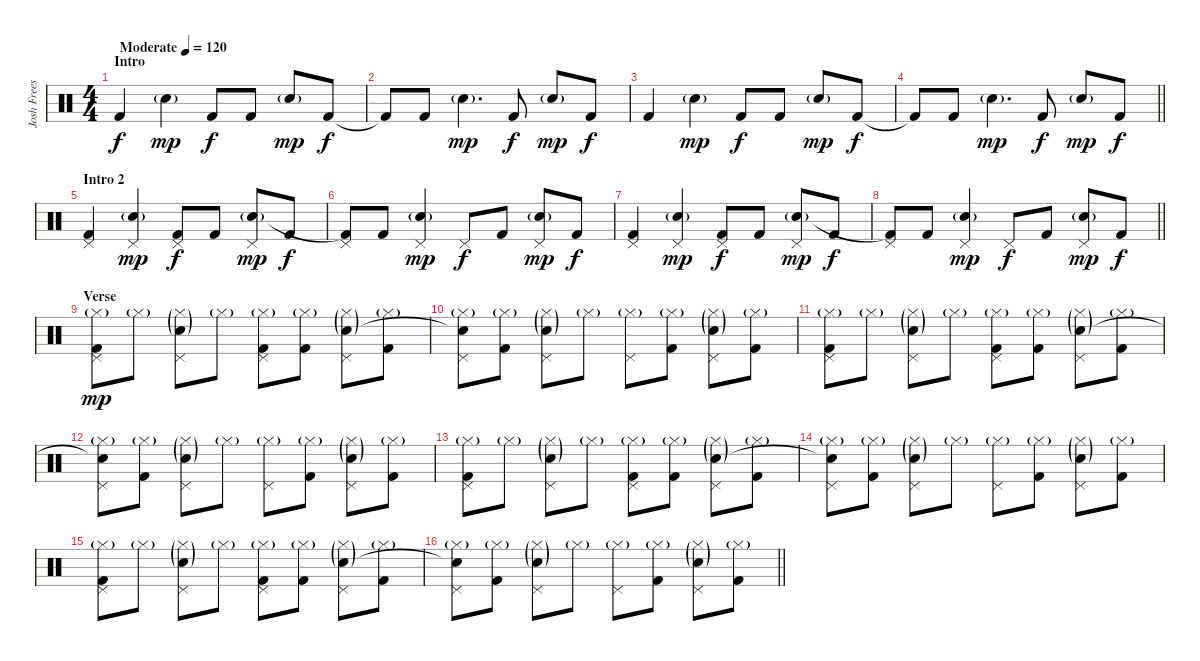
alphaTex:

\track ("Josh Freese" "Josh Frees") {instrument percussion}
\staff {score}
\articulation defaults
\ts (4 4)
\section ("" "Intro")
\tempo (120 "Moderate")
\clef neutral
\ks c "Kick (hit) 2".4{dy f} "Snare (hit) 2"{g}.4{dy mp} "Kick (hit) 2".8{dy f} "Kick (hit) 2".8 "Snare (hit) 2"{g}.8{dy mp} "Kick (hit) 2".8{dy f}
|
"Kick (hit) 2"{t}.8 "Kick (hit) 2".8 "Snare (hit) 2"{g}.4{d dy mp} "Kick (hit) 2".8{dy f} "Snare (hit) 2"{g}.8{dy mp} "Kick (hit) 2".8{dy f} |
"Kick (hit) 2".4 "Snare (hit) 2"{g}.4{dy mp} "Kick (hit) 2".8{dy f} "Kick (hit) 2".8 "Snare (hit) 2"{g}.8{dy mp} "Kick (hit) 2".8{dy f} |
\barLineRight lightlight "Kick (hit) 2"{t}.8 "Kick (hit) 2".8 "Snare (hit) 2"{g}.4{d dy mp} "Kick (hit) 2".8{dy f} "Snare (hit) 2"{g}.8{dy mp} "Kick (hit) 2".8{dy f}
|
\section ("" "Intro 2")
("Pedal Hi-Hat (hit)" "Kick (hit) 2").4 ("Pedal Hi-Hat (hit)" "Snare (hit) 2"{g}).4{dy mp} ("Pedal Hi-Hat (hit)" "Kick (hit) 2").8{dy f} "Kick (hit) 2".8 ("Pedal Hi-Hat (hit)" "Snare (hit) 2"{g}).8{dy mp} "Kick (hit) 2".8{dy f} |
("Pedal Hi-Hat (hit)" "Kick (hit) 2"{t}).8 "Kick (hit) 2".8 ("Pedal Hi-Hat (hit)" "Snare (hit) 2"{g}).4{dy mp} "Pedal Hi-Hat (hit)".8{dy f} "Kick (hit) 2".8 ("Pedal Hi-Hat (hit)" "Snare (hit) 2"{g}).8{dy mp} "Kick (hit) 2".8{dy f} |
("Pedal Hi-Hat (hit)" "Kick (hit) 2").4 ("Pedal Hi-Hat (hit)" "Snare (hit) 2"{g}).4{dy mp} ("Pedal Hi-Hat (hit)" "Kick (hit) 2").8{dy f} "Kick (hit) 2".8 ("Pedal Hi-Hat (hit)" "Snare (hit) 2"{g}).8{dy mp} "Kick (hit) 2".8{dy f} |
\barLineRight lightlight
("Pedal Hi-Hat (hit)" "Kick (hit) 2"{t}).8 "Kick (hit) 2".8 ("Pedal Hi-Hat (hit)" "Snare (hit) 2"{g}).4{dy mp} "Pedal Hi-Hat (hit)".8{dy f} "Kick (hit) 2".8 ("Pedal Hi-Hat (hit)" "Snare (hit) 2"{g}).8{dy mp} "Kick (hit) 2".8{dy f} |
\section ("" "Verse")
("Pedal Hi-Hat (hit)" "Hi-Hat (closed)"{g} "Kick (hit) 2").8{dy mp} "Hi-Hat (closed)"{g}.8 ("Pedal Hi-Hat (hit)" "Hi-Hat (closed)"{g} "Snare (hit) 2"{g}).8 "Hi-Hat (closed)"{g}.8 ("Pedal Hi-Hat (hit)" "Hi-Hat (closed)"{g} "Kick (hit) 2").8 ("Hi-Hat (closed)"{g} "Kick (hit) 2").8 ("Pedal Hi-Hat (hit)" "Hi-Hat (closed)"{g} "Snare (hit) 2"{g}).8 ("Hi-Hat (closed)"{g} "Kick (hit) 2").8 |
("Pedal Hi-Hat (hit)" "Hi-Hat (closed)"{g} "Snare (hit)"{t}).8 ("Hi-Hat (closed)"{g} "Kick (hit) 2").8 ("Pedal Hi-Hat (hit)" "Hi-Hat (closed)"{g} "Snare (hit) 2"{g}).8 "Hi-Hat (closed)"{g}.8 ("Pedal Hi-Hat (hit)" "Hi-Hat (closed)"{g}).8 ("Hi-Hat (closed)"{g} "Kick (hit) 2").8 ("Pedal Hi-Hat (hit)" "Hi-Hat (closed)"{g} "Snare (hit) 2"{g}).8 ("Hi-Hat (closed)"{g} "Kick (hit) 2").8 |
("Pedal Hi-Hat (hit)" "Hi-Hat (closed)"{g} "Kick (hit) 2").8 "Hi-Hat (closed)"{g}.8 ("Pedal Hi-Hat (hit)" "Hi-Hat (closed)"{g} "Snare (hit) 2"{g}).8 "Hi-Hat (closed)"{g}.8 ("Pedal Hi-Hat (hit)" "Hi-Hat (closed)"{g} "Kick (hit) 2").8 ("Hi-Hat (closed)"{g} "Kick (hit) 2").8 ("Pedal Hi-Hat (hit)" "Hi-Hat (closed)"{g} "Snare (hit) 2"{g}).8 ("Hi-Hat (closed)"{g} "Kick (hit) 2").8 |
("Pedal Hi-Hat (hit)" "Hi-Hat (closed)"{g} "Snare (hit)"{t}).8 ("Hi-Hat (closed)"{g} "Kick (hit) 2").8 ("Pedal Hi-Hat (hit)" "Hi-Hat (closed)"{g} "Snare (hit) 2"{g}).8 "Hi-Hat (closed)"{g}.8 ("Pedal Hi-Hat (hit)" "Hi-Hat (closed)"{g}).8 ("Hi-Hat (closed)"{g} "Kick (hit) 2").8 ("Pedal Hi-Hat (hit)" "Hi-Hat (closed)"{g} "Snare (hit) 2"{g}).8 ("Hi-Hat (closed)"{g} "Kick (hit) 2").8 |
("Pedal Hi-Hat (hit)" "Hi-Hat (closed)"{g} "Kick (hit) 2").8 "Hi-Hat (closed)"{g}.8 ("Pedal Hi-Hat (hit)" "Hi-Hat (closed)"{g} "Snare (hit) 2"{g}).8 "Hi-Hat (closed)"{g}.8 ("Pedal Hi-Hat (hit)" "Hi-Hat (closed)"{g} "Kick (hit) 2").8 ("Hi-Hat (closed)"{g} "Kick (hit) 2").8 ("Pedal Hi-Hat (hit)" "Hi-Hat (closed)"{g} "Snare (hit) 2"{g}).8 ("Hi-Hat (closed)"{g} "Kick (hit) 2").8 |
("Pedal Hi-Hat (hit)" "Hi-Hat (closed)"{g} "Snare (hit)"{t}).8 ("Hi-Hat (closed)"{g} "Kick (hit) 2").8 ("Pedal Hi-Hat (hit)" "Hi-Hat (closed)"{g} "Snare (hit) 2"{g}).8 "Hi-Hat (closed)"{g}.8 ("Pedal Hi-Hat (hit)" "Hi-Hat (closed)"{g}).8 ("Hi-Hat (closed)"{g} "Kick (hit) 2").8 ("Pedal Hi-Hat (hit)" "Hi-Hat (closed)"{g} "Snare (hit) 2"{g}).8 ("Hi-Hat (closed)"{g} "Kick (hit) 2").8 |
("Pedal Hi-Hat (hit)" "Hi-Hat (closed)"{g} "Kick (hit) 2").8 "Hi-Hat (closed)"{g}.8 ("Pedal Hi-Hat (hit)" "Hi-Hat (closed)"{g} "Snare (hit) 2"{g}).8 "Hi-Hat (closed)"{g}.8 ("Pedal Hi-Hat (hit)" "Hi-Hat (closed)"{g} "Kick (hit) 2").8 ("Hi-Hat (closed)"{g} "Kick (hit) 2").8 ("Pedal Hi-Hat (hit)" "Hi-Hat (closed)"{g} "Snare (hit) 2"{g}).8 ("Hi-Hat (closed)"{g} "Kick (hit) 2").8 |
\barLineRight lightlight
("Pedal Hi-Hat (hit)" "Hi-Hat (closed)"{g} "Snare (hit)"{t}).8 ("Hi-Hat (closed)"{g} "Kick (hit) 2").8 ("Pedal Hi-Hat (hit)" "Hi-Hat (closed)"{g} "Snare (hit) 2"{g}).8 "Hi-Hat (closed)"{g}.8 ("Pedal Hi-Hat (hit)" "Hi-Hat (closed)"{g}).8 ("Hi-Hat (closed)"{g} "Kick (hit) 2").8 ("Pedal Hi-Hat (hit)" "Hi-Hat (closed)"{g} "Snare (hit) 2"{g}).8 ("Hi-Hat (closed)"{g} "Kick (hit) 2").8
